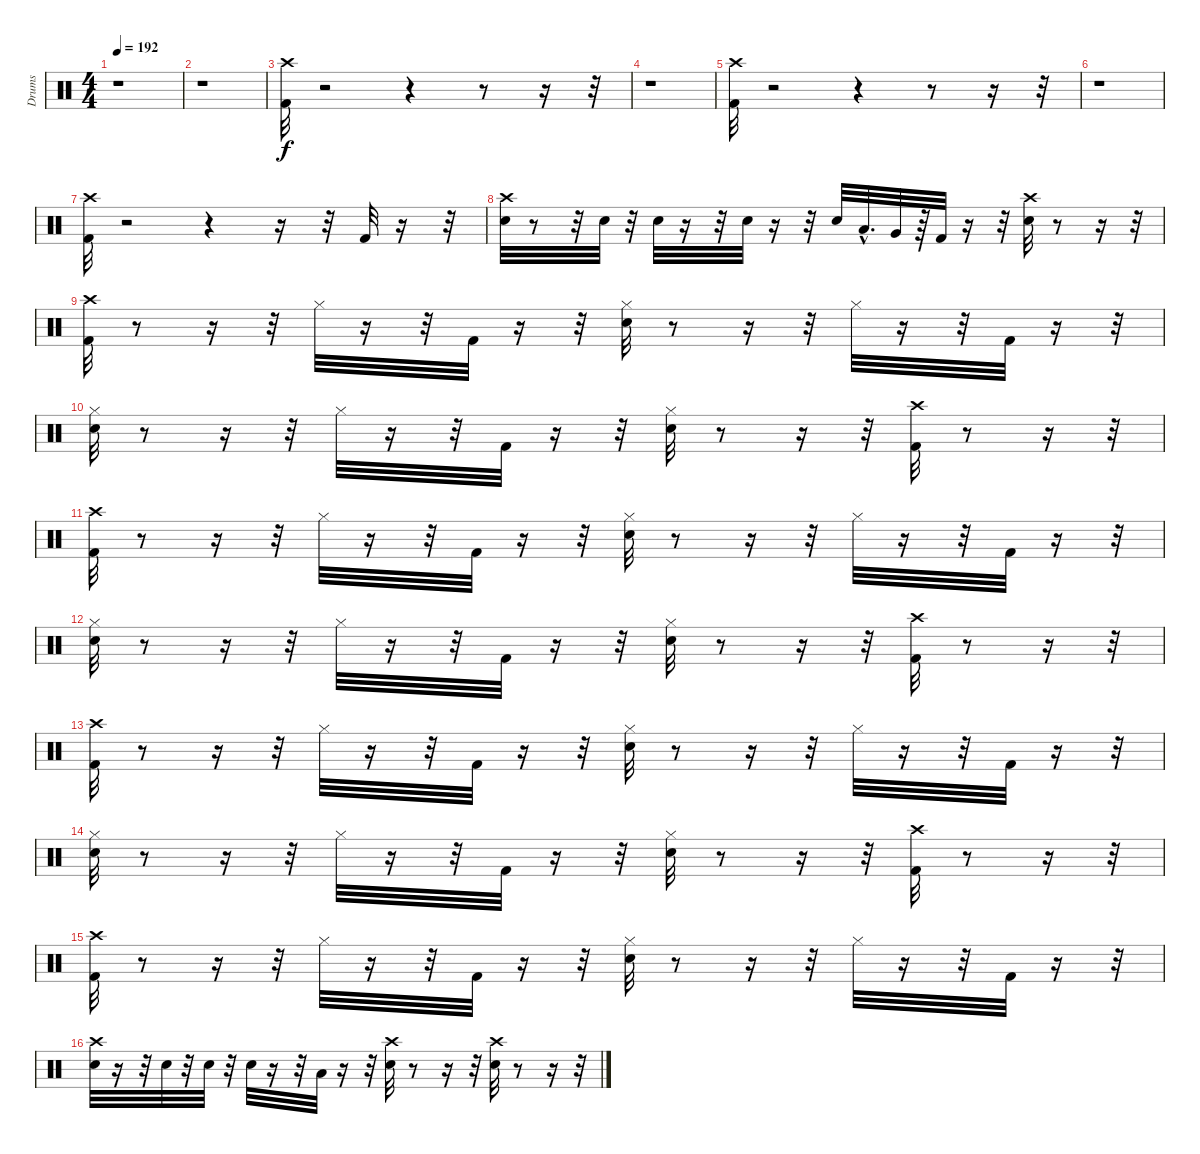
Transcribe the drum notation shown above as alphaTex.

\track ("Drums" "Drums") {instrument percussion}
\staff {score}
\articulation defaults
\ts (4 4)
\tempo 192
\clef neutral
\ks c
r.1{dy f} |
r.1 |
("Kick (hit) 2" "Crash high (hit)").32 r.2 r.4 r.8 r.16 r.32 |
r.1 |
("Crash high (hit)" "Kick (hit) 2").32 r.2 r.4 r.8 r.16 r.32 |
r.1 |
("Crash high (hit)" "Kick (hit) 2").32 r.2 r.4 r.16 r.32 "Kick (hit) 2".32 r.16 r.32 |
("Crash high (hit)" "Snare (hit) 2").32 r.8 r.32 "Snare (hit) 2".32 r.32 "Snare (hit) 2".32 r.16 r.32 "Snare (hit) 2".32 r.16 r.32 "Snare (hit) 2".32 "Low Tom (hit)"{hac}.32{d} "Very Low Tom (hit)".32 r.64 "Kick (hit) 2".32 r.16 r.32 ("Crash high (hit)" "Snare (hit) 2").32 r.8 r.16 r.32 |
("Kick (hit) 2" "Crash high (hit)").32 r.8 r.16 r.32 "Hi-Hat (closed)".32 r.16 r.32 "Kick (hit) 2".32 r.16 r.32 ("Snare (hit) 2" "Hi-Hat (closed)").32 r.8 r.16 r.32 "Hi-Hat (closed)".32 r.16 r.32 "Kick (hit) 2".32 r.16 r.32 |
("Snare (hit) 2" "Hi-Hat (closed)").32 r.8 r.16 r.32 "Hi-Hat (closed)".32 r.16 r.32 "Kick (hit) 2".32 r.16 r.32 ("Snare (hit) 2" "Hi-Hat (closed)").32 r.8 r.16 r.32 ("Kick (hit) 2" "Crash high (hit)").32 r.8 r.16 r.32 |
("Kick (hit) 2" "Crash high (hit)").32 r.8 r.16 r.32 "Hi-Hat (closed)".32 r.16 r.32 "Kick (hit) 2".32 r.16 r.32 ("Snare (hit) 2" "Hi-Hat (closed)").32 r.8 r.16 r.32 "Hi-Hat (closed)".32 r.16 r.32 "Kick (hit) 2".32 r.16 r.32 |
("Snare (hit) 2" "Hi-Hat (closed)").32 r.8 r.16 r.32 "Hi-Hat (closed)".32 r.16 r.32 "Kick (hit) 2".32 r.16 r.32 ("Snare (hit) 2" "Hi-Hat (closed)").32 r.8 r.16 r.32 ("Kick (hit) 2" "Crash high (hit)").32 r.8 r.16 r.32 |
("Kick (hit) 2" "Crash high (hit)").32 r.8 r.16 r.32 "Hi-Hat (closed)".32 r.16 r.32 "Kick (hit) 2".32 r.16 r.32 ("Snare (hit) 2" "Hi-Hat (closed)").32 r.8 r.16 r.32 "Hi-Hat (closed)".32 r.16 r.32 "Kick (hit) 2".32 r.16 r.32 |
("Snare (hit) 2" "Hi-Hat (closed)").32 r.8 r.16 r.32 "Hi-Hat (closed)".32 r.16 r.32 "Kick (hit) 2".32 r.16 r.32 ("Snare (hit) 2" "Hi-Hat (closed)").32 r.8 r.16 r.32 ("Kick (hit) 2" "Crash high (hit)").32 r.8 r.16 r.32 |
("Kick (hit) 2" "Crash high (hit)").32 r.8 r.16 r.32 "Hi-Hat (closed)".32 r.16 r.32 "Kick (hit) 2".32 r.16 r.32 ("Snare (hit) 2" "Hi-Hat (closed)").32 r.8 r.16 r.32 "Hi-Hat (closed)".32 r.16 r.32 "Kick (hit) 2".32 r.16 r.32 |
("Snare (hit) 2" "Crash high (hit)").32 r.16 r.32 "Snare (hit) 2".32 r.32 "Snare (hit) 2".32 r.32 "Snare (hit) 2".32 r.16 r.32 "Low Tom (hit)".32 r.16 r.32 ("Crash high (hit)" "Snare (hit) 2").32 r.8 r.16 r.32 ("Crash high (hit)" "Snare (hit) 2").32 r.8 r.16 r.32
